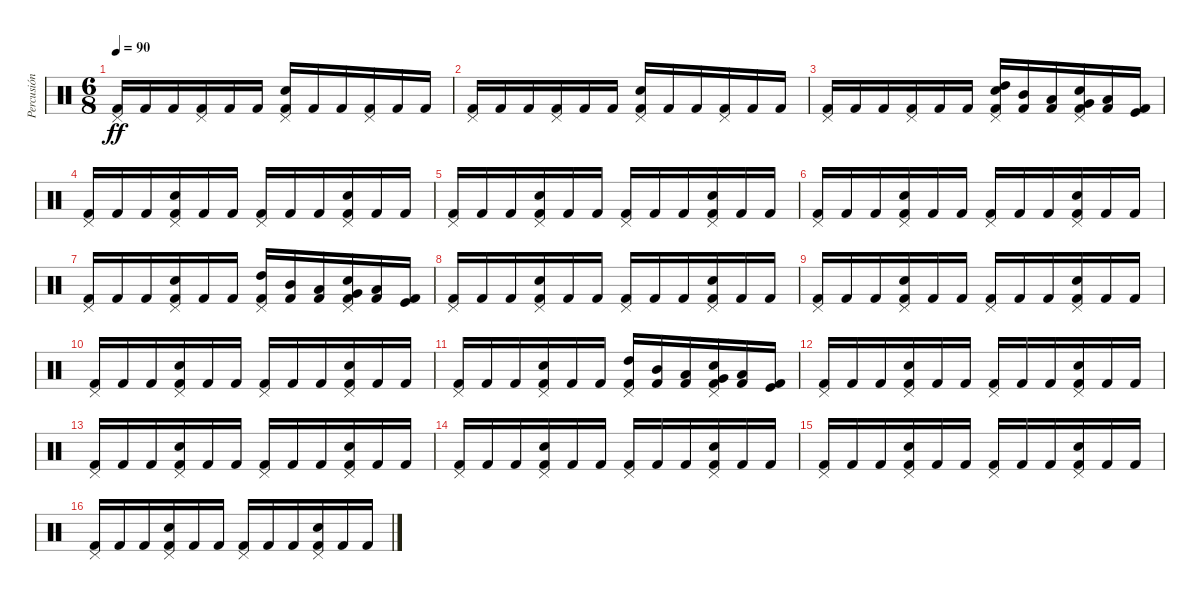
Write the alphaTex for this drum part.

\track ("Percusión" "Percusión") {instrument percussion}
\staff {score}
\articulation defaults
\ts (6 8)
\tempo 90
\clef neutral
\ks c
("Pedal Hi-Hat (hit)" "Kick (hit) 2").16{dy ff} "Kick (hit) 2".16 "Kick (hit) 2".16 ("Pedal Hi-Hat (hit)" "Kick (hit) 2").16 "Kick (hit) 2".16 "Kick (hit) 2".16 ("Pedal Hi-Hat (hit)" "Electric Snare (hit)" "Kick (hit) 2").16 "Kick (hit) 2".16 "Kick (hit) 2".16 ("Pedal Hi-Hat (hit)" "Kick (hit) 2").16 "Kick (hit) 2".16 "Kick (hit) 2".16 |
("Pedal Hi-Hat (hit)" "Kick (hit) 2").16 "Kick (hit) 2".16 "Kick (hit) 2".16 ("Pedal Hi-Hat (hit)" "Kick (hit) 2").16 "Kick (hit) 2".16 "Kick (hit) 2".16 ("Pedal Hi-Hat (hit)" "Electric Snare (hit)" "Kick (hit) 2").16 "Kick (hit) 2".16 "Kick (hit) 2".16 ("Pedal Hi-Hat (hit)" "Kick (hit) 2").16 "Kick (hit) 2".16 "Kick (hit) 2".16 |
("Pedal Hi-Hat (hit)" "Kick (hit) 2").16 "Kick (hit) 2".16 "Kick (hit) 2".16 ("Pedal Hi-Hat (hit)" "Kick (hit) 2").16 "Kick (hit) 2".16 "Kick (hit) 2".16 ("Pedal Hi-Hat (hit)" "Electric Snare (hit)" "High Tom (hit)" "Kick (hit) 2").16 ("Mid Tom (hit)" "Kick (hit) 2").16 ("Low Tom (hit)" "Kick (hit) 2").16 ("Pedal Hi-Hat (hit)" "Electric Snare (hit)" "Very Low Tom (hit)" "Kick (hit) 2").16 ("Low Floor Tom (hit)" "Kick (hit) 2").16 ("Kick (hit)" "Kick (hit) 2").16 |
("Pedal Hi-Hat (hit)" "Kick (hit) 2").16 "Kick (hit) 2".16 "Kick (hit) 2".16 ("Pedal Hi-Hat (hit)" "Electric Snare (hit)" "Kick (hit) 2").16 "Kick (hit) 2".16 "Kick (hit) 2".16 ("Pedal Hi-Hat (hit)" "Kick (hit) 2").16 "Kick (hit) 2".16 "Kick (hit) 2".16 ("Pedal Hi-Hat (hit)" "Electric Snare (hit)" "Kick (hit) 2").16 "Kick (hit) 2".16 "Kick (hit) 2".16 |
("Pedal Hi-Hat (hit)" "Kick (hit) 2").16 "Kick (hit) 2".16 "Kick (hit) 2".16 ("Pedal Hi-Hat (hit)" "Electric Snare (hit)" "Kick (hit) 2").16 "Kick (hit) 2".16 "Kick (hit) 2".16 ("Pedal Hi-Hat (hit)" "Kick (hit) 2").16 "Kick (hit) 2".16 "Kick (hit) 2".16 ("Pedal Hi-Hat (hit)" "Electric Snare (hit)" "Kick (hit) 2").16 "Kick (hit) 2".16 "Kick (hit) 2".16 |
("Pedal Hi-Hat (hit)" "Kick (hit) 2").16 "Kick (hit) 2".16 "Kick (hit) 2".16 ("Pedal Hi-Hat (hit)" "Electric Snare (hit)" "Kick (hit) 2").16 "Kick (hit) 2".16 "Kick (hit) 2".16 ("Pedal Hi-Hat (hit)" "Kick (hit) 2").16 "Kick (hit) 2".16 "Kick (hit) 2".16 ("Pedal Hi-Hat (hit)" "Electric Snare (hit)" "Kick (hit) 2").16 "Kick (hit) 2".16 "Kick (hit) 2".16 |
("Pedal Hi-Hat (hit)" "Kick (hit) 2").16 "Kick (hit) 2".16 "Kick (hit) 2".16 ("Pedal Hi-Hat (hit)" "Electric Snare (hit)" "Kick (hit) 2").16 "Kick (hit) 2".16 "Kick (hit) 2".16 ("Pedal Hi-Hat (hit)" "High Tom (hit)" "Kick (hit) 2").16 ("Mid Tom (hit)" "Kick (hit) 2").16 ("Low Tom (hit)" "Kick (hit) 2").16 ("Pedal Hi-Hat (hit)" "Electric Snare (hit)" "Very Low Tom (hit)" "Kick (hit) 2").16 ("Low Floor Tom (hit)" "Kick (hit) 2").16 ("Kick (hit)" "Kick (hit) 2").16 |
("Pedal Hi-Hat (hit)" "Kick (hit) 2").16 "Kick (hit) 2".16 "Kick (hit) 2".16 ("Pedal Hi-Hat (hit)" "Electric Snare (hit)" "Kick (hit) 2").16 "Kick (hit) 2".16 "Kick (hit) 2".16 ("Pedal Hi-Hat (hit)" "Kick (hit) 2").16 "Kick (hit) 2".16 "Kick (hit) 2".16 ("Pedal Hi-Hat (hit)" "Electric Snare (hit)" "Kick (hit) 2").16 "Kick (hit) 2".16 "Kick (hit) 2".16 |
("Pedal Hi-Hat (hit)" "Kick (hit) 2").16 "Kick (hit) 2".16 "Kick (hit) 2".16 ("Pedal Hi-Hat (hit)" "Electric Snare (hit)" "Kick (hit) 2").16 "Kick (hit) 2".16 "Kick (hit) 2".16 ("Pedal Hi-Hat (hit)" "Kick (hit) 2").16 "Kick (hit) 2".16 "Kick (hit) 2".16 ("Pedal Hi-Hat (hit)" "Electric Snare (hit)" "Kick (hit) 2").16 "Kick (hit) 2".16 "Kick (hit) 2".16 |
("Pedal Hi-Hat (hit)" "Kick (hit) 2").16 "Kick (hit) 2".16 "Kick (hit) 2".16 ("Pedal Hi-Hat (hit)" "Electric Snare (hit)" "Kick (hit) 2").16 "Kick (hit) 2".16 "Kick (hit) 2".16 ("Pedal Hi-Hat (hit)" "Kick (hit) 2").16 "Kick (hit) 2".16 "Kick (hit) 2".16 ("Pedal Hi-Hat (hit)" "Electric Snare (hit)" "Kick (hit) 2").16 "Kick (hit) 2".16 "Kick (hit) 2".16 |
("Pedal Hi-Hat (hit)" "Kick (hit) 2").16 "Kick (hit) 2".16 "Kick (hit) 2".16 ("Pedal Hi-Hat (hit)" "Electric Snare (hit)" "Kick (hit) 2").16 "Kick (hit) 2".16 "Kick (hit) 2".16 ("Pedal Hi-Hat (hit)" "High Tom (hit)" "Kick (hit) 2").16 ("Mid Tom (hit)" "Kick (hit) 2").16 ("Low Tom (hit)" "Kick (hit) 2").16 ("Pedal Hi-Hat (hit)" "Electric Snare (hit)" "Very Low Tom (hit)" "Kick (hit) 2").16 ("Low Floor Tom (hit)" "Kick (hit) 2").16 ("Kick (hit)" "Kick (hit) 2").16 |
("Pedal Hi-Hat (hit)" "Kick (hit) 2").16 "Kick (hit) 2".16 "Kick (hit) 2".16 ("Pedal Hi-Hat (hit)" "Electric Snare (hit)" "Kick (hit) 2").16 "Kick (hit) 2".16 "Kick (hit) 2".16 ("Pedal Hi-Hat (hit)" "Kick (hit) 2").16 "Kick (hit) 2".16 "Kick (hit) 2".16 ("Pedal Hi-Hat (hit)" "Electric Snare (hit)" "Kick (hit) 2").16 "Kick (hit) 2".16 "Kick (hit) 2".16 |
("Pedal Hi-Hat (hit)" "Kick (hit) 2").16 "Kick (hit) 2".16 "Kick (hit) 2".16 ("Pedal Hi-Hat (hit)" "Electric Snare (hit)" "Kick (hit) 2").16 "Kick (hit) 2".16 "Kick (hit) 2".16 ("Pedal Hi-Hat (hit)" "Kick (hit) 2").16 "Kick (hit) 2".16 "Kick (hit) 2".16 ("Pedal Hi-Hat (hit)" "Electric Snare (hit)" "Kick (hit) 2").16 "Kick (hit) 2".16 "Kick (hit) 2".16 |
("Pedal Hi-Hat (hit)" "Kick (hit) 2").16 "Kick (hit) 2".16 "Kick (hit) 2".16 ("Pedal Hi-Hat (hit)" "Electric Snare (hit)" "Kick (hit) 2").16 "Kick (hit) 2".16 "Kick (hit) 2".16 ("Pedal Hi-Hat (hit)" "Kick (hit) 2").16 "Kick (hit) 2".16 "Kick (hit) 2".16 ("Pedal Hi-Hat (hit)" "Electric Snare (hit)" "Kick (hit) 2").16 "Kick (hit) 2".16 "Kick (hit) 2".16 |
("Pedal Hi-Hat (hit)" "Kick (hit) 2").16 "Kick (hit) 2".16 "Kick (hit) 2".16 ("Pedal Hi-Hat (hit)" "Electric Snare (hit)" "Kick (hit) 2").16 "Kick (hit) 2".16 "Kick (hit) 2".16 ("Pedal Hi-Hat (hit)" "Kick (hit) 2").16 "Kick (hit) 2".16 "Kick (hit) 2".16 ("Pedal Hi-Hat (hit)" "Electric Snare (hit)" "Kick (hit) 2").16 "Kick (hit) 2".16 "Kick (hit) 2".16 |
("Pedal Hi-Hat (hit)" "Kick (hit) 2").16 "Kick (hit) 2".16 "Kick (hit) 2".16 ("Pedal Hi-Hat (hit)" "Electric Snare (hit)" "Kick (hit) 2").16 "Kick (hit) 2".16 "Kick (hit) 2".16 ("Pedal Hi-Hat (hit)" "Kick (hit) 2").16 "Kick (hit) 2".16 "Kick (hit) 2".16 ("Pedal Hi-Hat (hit)" "Electric Snare (hit)" "Kick (hit) 2").16 "Kick (hit) 2".16 "Kick (hit) 2".16
